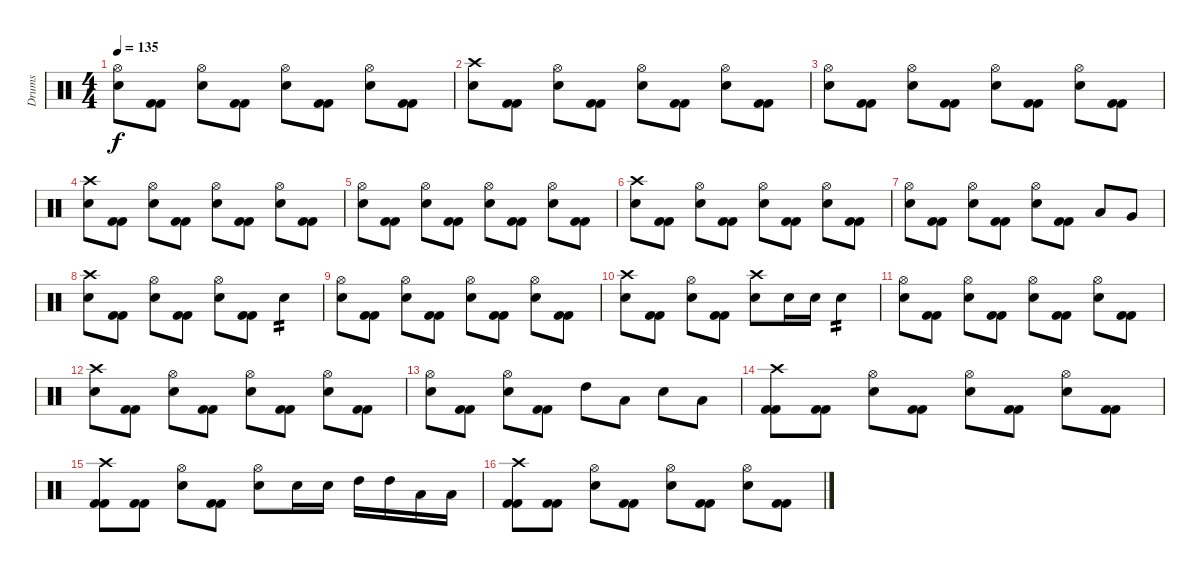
\track ("Drums" "Drums") {instrument percussion}
\staff {score}
\articulation defaults
\ts (4 4)
\tempo 135
\clef neutral
\ks c
("Hi-Hat (open)" "Electric Snare (hit)").8{dy f} ("Kick (hit) 2" "Kick (hit) 2").8 ("Electric Snare (hit)" "Hi-Hat (open)").8 ("Kick (hit) 2" "Kick (hit) 2").8 ("Hi-Hat (open)" "Electric Snare (hit)").8 ("Kick (hit) 2" "Kick (hit) 2").8 ("Electric Snare (hit)" "Hi-Hat (open)").8 ("Kick (hit) 2" "Kick (hit) 2").8 |
("Crash high (hit)" "Electric Snare (hit)").8 ("Kick (hit) 2" "Kick (hit) 2").8 ("Electric Snare (hit)" "Hi-Hat (open)").8 ("Kick (hit) 2" "Kick (hit) 2").8 ("Hi-Hat (open)" "Electric Snare (hit)").8 ("Kick (hit) 2" "Kick (hit) 2").8 ("Electric Snare (hit)" "Hi-Hat (open)").8 ("Kick (hit) 2" "Kick (hit) 2").8 |
("Hi-Hat (open)" "Electric Snare (hit)").8 ("Kick (hit) 2" "Kick (hit) 2").8 ("Electric Snare (hit)" "Hi-Hat (open)").8 ("Kick (hit) 2" "Kick (hit) 2").8 ("Hi-Hat (open)" "Electric Snare (hit)").8 ("Kick (hit) 2" "Kick (hit) 2").8 ("Electric Snare (hit)" "Hi-Hat (open)").8 ("Kick (hit) 2" "Kick (hit) 2").8 |
("Crash high (hit)" "Electric Snare (hit)").8 ("Kick (hit) 2" "Kick (hit) 2").8 ("Electric Snare (hit)" "Hi-Hat (open)").8 ("Kick (hit) 2" "Kick (hit) 2").8 ("Hi-Hat (open)" "Electric Snare (hit)").8 ("Kick (hit) 2" "Kick (hit) 2").8 ("Electric Snare (hit)" "Hi-Hat (open)").8 ("Kick (hit) 2" "Kick (hit) 2").8 |
("Hi-Hat (open)" "Electric Snare (hit)").8 ("Kick (hit) 2" "Kick (hit) 2").8 ("Electric Snare (hit)" "Hi-Hat (open)").8 ("Kick (hit) 2" "Kick (hit) 2").8 ("Hi-Hat (open)" "Electric Snare (hit)").8 ("Kick (hit) 2" "Kick (hit) 2").8 ("Electric Snare (hit)" "Hi-Hat (open)").8 ("Kick (hit) 2" "Kick (hit) 2").8 |
("Crash high (hit)" "Electric Snare (hit)").8 ("Kick (hit) 2" "Kick (hit) 2").8 ("Electric Snare (hit)" "Hi-Hat (open)").8 ("Kick (hit) 2" "Kick (hit) 2").8 ("Hi-Hat (open)" "Electric Snare (hit)").8 ("Kick (hit) 2" "Kick (hit) 2").8 ("Electric Snare (hit)" "Hi-Hat (open)").8 ("Kick (hit) 2" "Kick (hit) 2").8 |
("Hi-Hat (open)" "Electric Snare (hit)").8 ("Kick (hit) 2" "Kick (hit) 2").8 ("Electric Snare (hit)" "Hi-Hat (open)").8 ("Kick (hit) 2" "Kick (hit) 2").8 ("Hi-Hat (open)" "Electric Snare (hit)").8 ("Kick (hit) 2" "Kick (hit) 2").8 "Low Tom (hit)".8 "Very Low Tom (hit)".8 |
("Crash high (hit)" "Electric Snare (hit)").8 ("Kick (hit) 2" "Kick (hit) 2").8 ("Electric Snare (hit)" "Hi-Hat (open)").8 ("Kick (hit) 2" "Kick (hit) 2").8 ("Hi-Hat (open)" "Electric Snare (hit)").8 ("Kick (hit) 2" "Kick (hit) 2").8 "Electric Snare (hit)".4{tp 2} |
("Hi-Hat (open)" "Electric Snare (hit)").8 ("Kick (hit) 2" "Kick (hit) 2").8 ("Electric Snare (hit)" "Hi-Hat (open)").8 ("Kick (hit) 2" "Kick (hit) 2").8 ("Hi-Hat (open)" "Electric Snare (hit)").8 ("Kick (hit) 2" "Kick (hit) 2").8 ("Electric Snare (hit)" "Hi-Hat (open)").8 ("Kick (hit) 2" "Kick (hit) 2").8 |
("Crash high (hit)" "Electric Snare (hit)").8 ("Kick (hit) 2" "Kick (hit) 2").8 ("Electric Snare (hit)" "Hi-Hat (open)").8 ("Kick (hit) 2" "Kick (hit) 2").8 ("Crash high (hit)" "Electric Snare (hit)").8 "Electric Snare (hit)".16 "Electric Snare (hit)".16 "Electric Snare (hit)".4{tp 2} |
("Hi-Hat (open)" "Electric Snare (hit)").8 ("Kick (hit) 2" "Kick (hit) 2").8 ("Electric Snare (hit)" "Hi-Hat (open)").8 ("Kick (hit) 2" "Kick (hit) 2").8 ("Hi-Hat (open)" "Electric Snare (hit)").8 ("Kick (hit) 2" "Kick (hit) 2").8 ("Electric Snare (hit)" "Hi-Hat (open)").8 ("Kick (hit) 2" "Kick (hit) 2").8 |
("Crash high (hit)" "Electric Snare (hit)").8 ("Kick (hit) 2" "Kick (hit) 2").8 ("Electric Snare (hit)" "Hi-Hat (open)").8 ("Kick (hit) 2" "Kick (hit) 2").8 ("Hi-Hat (open)" "Electric Snare (hit)").8 ("Kick (hit) 2" "Kick (hit) 2").8 ("Electric Snare (hit)" "Hi-Hat (open)").8 ("Kick (hit) 2" "Kick (hit) 2").8 |
("Hi-Hat (open)" "Electric Snare (hit)").8 ("Kick (hit) 2" "Kick (hit) 2").8 ("Electric Snare (hit)" "Hi-Hat (open)").8 ("Kick (hit) 2" "Kick (hit) 2").8 "High Tom (hit)".8 "Low Tom (hit)".8 "Electric Snare (hit)".8 "Low Tom (hit)".8 |
("Crash high (hit)" "Kick (hit) 2" "Kick (hit) 2").8 ("Kick (hit) 2" "Kick (hit) 2").8 ("Electric Snare (hit)" "Hi-Hat (open)").8 ("Kick (hit) 2" "Kick (hit) 2").8 ("Hi-Hat (open)" "Electric Snare (hit)").8 ("Kick (hit) 2" "Kick (hit) 2").8 ("Electric Snare (hit)" "Hi-Hat (open)").8 ("Kick (hit) 2" "Kick (hit) 2").8 |
("Crash high (hit)" "Kick (hit) 2" "Kick (hit) 2").8 ("Kick (hit) 2" "Kick (hit) 2").8 ("Electric Snare (hit)" "Hi-Hat (open)").8 ("Kick (hit) 2" "Kick (hit) 2").8 ("Hi-Hat (open)" "Electric Snare (hit)").8 "Electric Snare (hit)".16 "Electric Snare (hit)".16 "High Tom (hit)".16 "High Tom (hit)".16 "Low Tom (hit)".16 "Low Tom (hit)".16 |
("Crash high (hit)" "Kick (hit) 2" "Kick (hit) 2").8 ("Kick (hit) 2" "Kick (hit) 2").8 ("Electric Snare (hit)" "Hi-Hat (open)").8 ("Kick (hit) 2" "Kick (hit) 2").8 ("Hi-Hat (open)" "Electric Snare (hit)").8 ("Kick (hit) 2" "Kick (hit) 2").8 ("Electric Snare (hit)" "Hi-Hat (open)").8 ("Kick (hit) 2" "Kick (hit) 2").8
